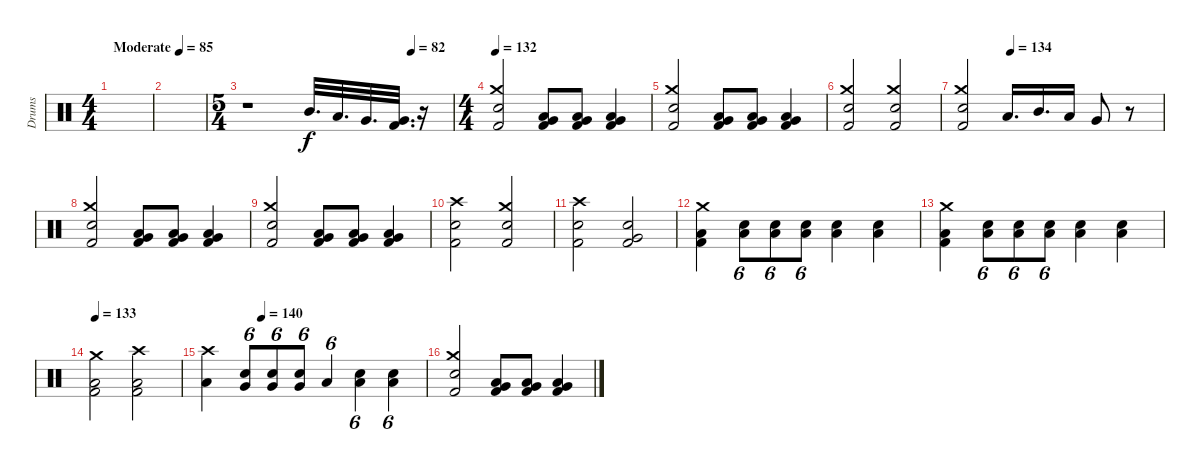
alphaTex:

\track ("Drums" "Drums") {instrument percussion}
\staff {score}
\articulation defaults
\ts (4 4)
\tempo (85 "Moderate")
\clef neutral
\ks c
|
|
\ts (5 4)
\tempo (100 0.8)
\tempo (82 0.8)
r.1 "Mid Tom (hit)".32{d} "Low Tom (hit)".32{d} "Very Low Tom (hit)".32{d} ("Very Low Tom (hit)" "Kick (hit) 2").32{d} r.16 |
\ts (4 4)
\tempo 132
("Crash medium (hit)" "Electric Snare (hit)" "Kick (hit) 2").2{dy f} ("Low Tom (hit)" "Very Low Tom (hit)" "Kick (hit) 2").8 ("Low Tom (hit)" "Very Low Tom (hit)" "Kick (hit) 2").8 ("Low Tom (hit)" "Very Low Tom (hit)" "Kick (hit) 2").4 |
("Crash medium (hit)" "Electric Snare (hit)" "Kick (hit) 2").2 ("Low Tom (hit)" "Very Low Tom (hit)" "Kick (hit) 2").8 ("Low Tom (hit)" "Very Low Tom (hit)" "Kick (hit) 2").8 ("Low Tom (hit)" "Very Low Tom (hit)" "Kick (hit) 2").4 |
("Crash medium (hit)" "Electric Snare (hit)" "Kick (hit) 2").2 ("Crash medium (hit)" "Electric Snare (hit)" "Kick (hit) 2").2 |
\tempo (134 0.25)
("Crash medium (hit)" "Electric Snare (hit)" "Kick (hit) 2").2 "Low Tom (hit)".16{d} "Mid Tom (hit)".16{d} "Low Tom (hit)".16 "Very Low Tom (hit)".8 r.8 |
("Crash medium (hit)" "Electric Snare (hit)" "Kick (hit) 2").2 ("Low Tom (hit)" "Very Low Tom (hit)" "Kick (hit) 2").8 ("Low Tom (hit)" "Very Low Tom (hit)" "Kick (hit) 2").8 ("Low Tom (hit)" "Very Low Tom (hit)" "Kick (hit) 2").4 |
("Crash medium (hit)" "Electric Snare (hit)" "Kick (hit) 2").2 ("Low Tom (hit)" "Very Low Tom (hit)" "Kick (hit) 2").8 ("Low Tom (hit)" "Very Low Tom (hit)" "Kick (hit) 2").8 ("Low Tom (hit)" "Very Low Tom (hit)" "Kick (hit) 2").4 |
("Crash high (hit)" "Electric Snare (hit)" "Kick (hit) 2").2 ("Crash medium (hit)" "Electric Snare (hit)" "Kick (hit) 2").2 |
("Crash high (hit)" "Electric Snare (hit)" "Kick (hit) 2").2 ("Very Low Tom (hit)" "Electric Snare (hit)" "Kick (hit) 2").2 |
("Crash medium (hit)" "Low Tom (hit)" "Kick (hit) 2").4 ("Snare (hit) 2" "Low Tom (hit)").8{tu (6 4)} ("Snare (hit) 2" "Low Tom (hit)").8{tu (6 4)} ("Snare (hit) 2" "Low Tom (hit)").8{tu (6 4)} ("Snare (hit) 2" "Low Tom (hit)").4 ("Snare (hit) 2" "Low Tom (hit)").4 |
("Crash medium (hit)" "Low Tom (hit)" "Kick (hit) 2").4 ("Snare (hit) 2" "Low Tom (hit)").8{tu (6 4)} ("Snare (hit) 2" "Low Tom (hit)").8{tu (6 4)} ("Snare (hit) 2" "Low Tom (hit)").8{tu (6 4)} ("Snare (hit) 2" "Low Tom (hit)").4 ("Snare (hit) 2" "Low Tom (hit)").4 |
\tempo 133
("Crash medium (hit)" "Low Tom (hit)" "Kick (hit) 2").2 ("Crash high (hit)" "Low Tom (hit)" "Kick (hit) 2").2 |
\tempo (140 0.25)
("Crash high (hit)" "Low Tom (hit)").4 ("Snare (hit) 2" "Very Low Tom (hit)").8{tu (6 4)} ("Snare (hit) 2" "Very Low Tom (hit)").8{tu (6 4)} ("Snare (hit) 2" "Very Low Tom (hit)").8{tu (6 4)} "Low Tom (hit)".4{tu (6 4)} ("Snare (hit) 2" "Low Tom (hit)").4{tu (6 4)} ("Snare (hit) 2" "Low Tom (hit)").4{tu (6 4)} |
("Crash medium (hit)" "Snare (hit) 2" "Kick (hit) 2").2 ("Low Tom (hit)" "Very Low Tom (hit)" "Kick (hit) 2").8 ("Low Tom (hit)" "Very Low Tom (hit)" "Kick (hit) 2").8 ("Low Tom (hit)" "Very Low Tom (hit)" "Kick (hit) 2").4
